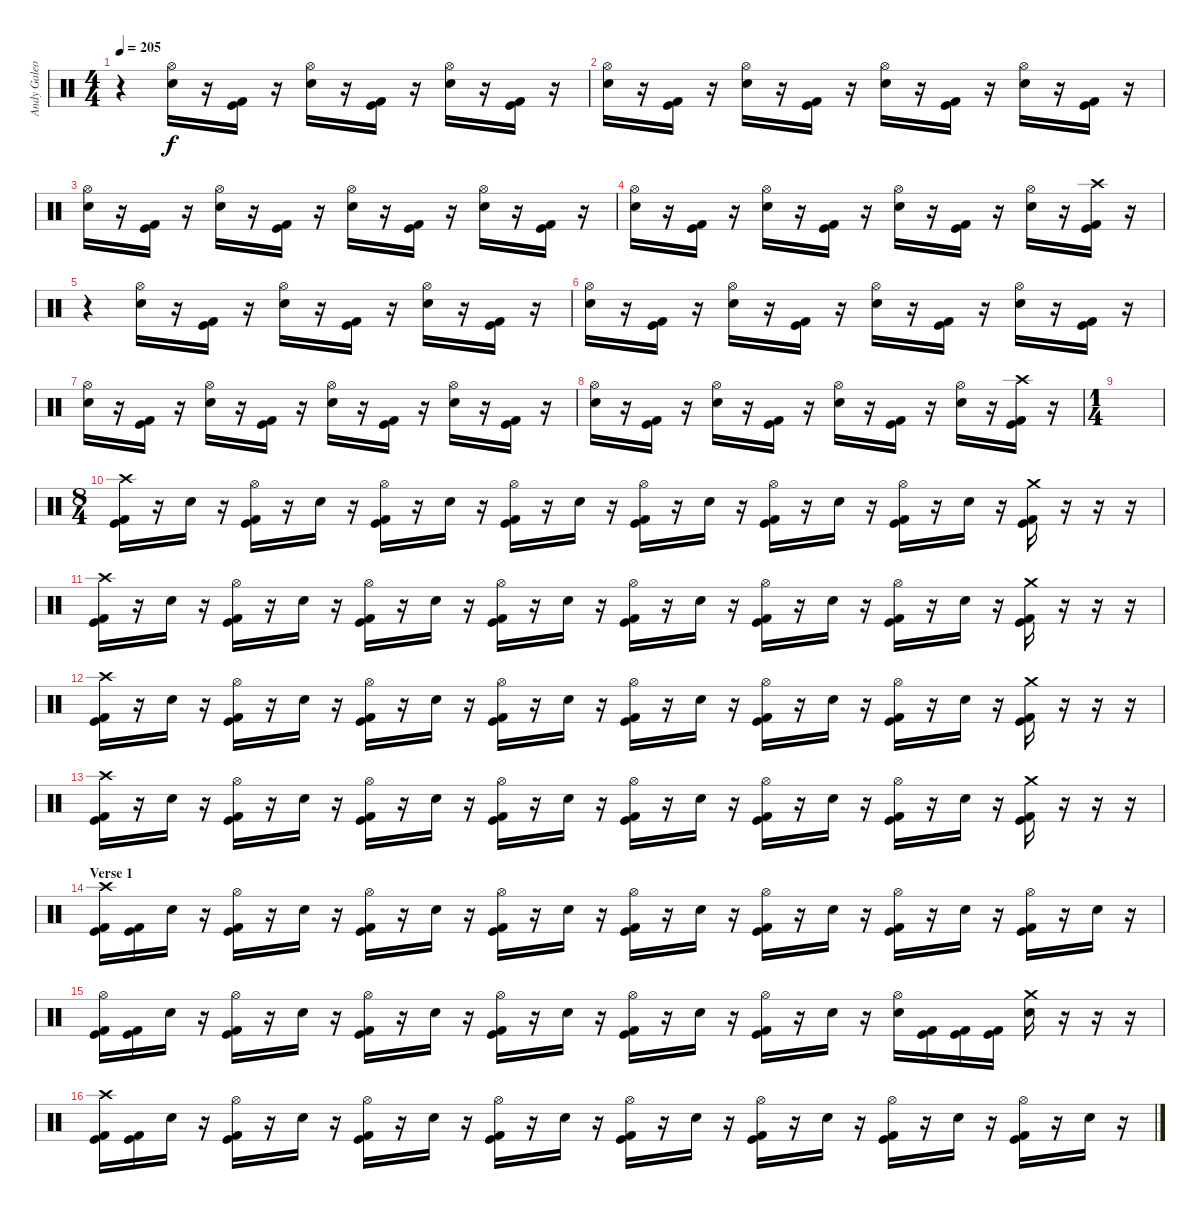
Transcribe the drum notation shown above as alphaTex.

\track ("Andy Galeon - Drums" "Andy Galeo") {instrument percussion}
\staff {score}
\articulation defaults
\ts (4 4)
\tempo 205
\clef neutral
\ks c
r.4{dy f} ("Hi-Hat (open)" "Electric Snare (hit)").16 r.16 ("Kick (hit) 2" "Kick (hit)").16 r.16 ("Hi-Hat (open)" "Electric Snare (hit)").16 r.16 ("Kick (hit) 2" "Kick (hit)").16 r.16 ("Hi-Hat (open)" "Electric Snare (hit)").16 r.16 ("Kick (hit) 2" "Kick (hit)").16 r.16 |
("Hi-Hat (open)" "Electric Snare (hit)").16 r.16 ("Kick (hit) 2" "Kick (hit)").16 r.16 ("Hi-Hat (open)" "Electric Snare (hit)").16 r.16 ("Kick (hit) 2" "Kick (hit)").16 r.16 ("Hi-Hat (open)" "Electric Snare (hit)").16 r.16 ("Kick (hit) 2" "Kick (hit)").16 r.16 ("Hi-Hat (open)" "Electric Snare (hit)").16 r.16 ("Kick (hit) 2" "Kick (hit)").16 r.16 |
("Hi-Hat (open)" "Electric Snare (hit)").16 r.16 ("Kick (hit) 2" "Kick (hit)").16 r.16 ("Hi-Hat (open)" "Electric Snare (hit)").16 r.16 ("Kick (hit) 2" "Kick (hit)").16 r.16 ("Hi-Hat (open)" "Electric Snare (hit)").16 r.16 ("Kick (hit) 2" "Kick (hit)").16 r.16 ("Hi-Hat (open)" "Electric Snare (hit)").16 r.16 ("Kick (hit) 2" "Kick (hit)").16 r.16 |
("Hi-Hat (open)" "Electric Snare (hit)").16 r.16 ("Kick (hit) 2" "Kick (hit)").16 r.16 ("Hi-Hat (open)" "Electric Snare (hit)").16 r.16 ("Kick (hit) 2" "Kick (hit)").16 r.16 ("Hi-Hat (open)" "Electric Snare (hit)").16 r.16 ("Kick (hit) 2" "Kick (hit)").16 r.16 ("Hi-Hat (open)" "Electric Snare (hit)").16 r.16 ("Crash high (hit)" "Kick (hit) 2" "Kick (hit)").16 r.16 |
r.4 ("Hi-Hat (open)" "Electric Snare (hit)").16 r.16 ("Kick (hit) 2" "Kick (hit)").16 r.16 ("Hi-Hat (open)" "Electric Snare (hit)").16 r.16 ("Kick (hit) 2" "Kick (hit)").16 r.16 ("Hi-Hat (open)" "Electric Snare (hit)").16 r.16 ("Kick (hit) 2" "Kick (hit)").16 r.16 |
("Hi-Hat (open)" "Electric Snare (hit)").16 r.16 ("Kick (hit) 2" "Kick (hit)").16 r.16 ("Hi-Hat (open)" "Electric Snare (hit)").16 r.16 ("Kick (hit) 2" "Kick (hit)").16 r.16 ("Hi-Hat (open)" "Electric Snare (hit)").16 r.16 ("Kick (hit) 2" "Kick (hit)").16 r.16 ("Hi-Hat (open)" "Electric Snare (hit)").16 r.16 ("Kick (hit) 2" "Kick (hit)").16 r.16 |
("Hi-Hat (open)" "Electric Snare (hit)").16 r.16 ("Kick (hit) 2" "Kick (hit)").16 r.16 ("Hi-Hat (open)" "Electric Snare (hit)").16 r.16 ("Kick (hit) 2" "Kick (hit)").16 r.16 ("Hi-Hat (open)" "Electric Snare (hit)").16 r.16 ("Kick (hit) 2" "Kick (hit)").16 r.16 ("Hi-Hat (open)" "Electric Snare (hit)").16 r.16 ("Kick (hit) 2" "Kick (hit)").16 r.16 |
("Hi-Hat (open)" "Electric Snare (hit)").16 r.16 ("Kick (hit) 2" "Kick (hit)").16 r.16 ("Hi-Hat (open)" "Electric Snare (hit)").16 r.16 ("Kick (hit) 2" "Kick (hit)").16 r.16 ("Hi-Hat (open)" "Electric Snare (hit)").16 r.16 ("Kick (hit) 2" "Kick (hit)").16 r.16 ("Hi-Hat (open)" "Electric Snare (hit)").16 r.16 ("Crash high (hit)" "Kick (hit) 2" "Kick (hit)").16 r.16 |
\ts (1 4)
|
\ts (8 4)
("Crash high (hit)" "Kick (hit) 2" "Kick (hit)").16 r.16 "Electric Snare (hit)".16 r.16 ("Hi-Hat (open)" "Kick (hit) 2" "Kick (hit)").16 r.16 "Electric Snare (hit)".16 r.16 ("Hi-Hat (open)" "Kick (hit) 2" "Kick (hit)").16 r.16 "Electric Snare (hit)".16 r.16 ("Hi-Hat (open)" "Kick (hit) 2" "Kick (hit)").16 r.16 "Electric Snare (hit)".16 r.16 ("Hi-Hat (open)" "Kick (hit) 2" "Kick (hit)").16 r.16 "Electric Snare (hit)".16 r.16 ("Hi-Hat (open)" "Kick (hit) 2" "Kick (hit)").16 r.16 "Electric Snare (hit)".16 r.16 ("Hi-Hat (open)" "Kick (hit) 2" "Kick (hit)").16 r.16 "Electric Snare (hit)".16 r.16 ("Crash medium (hit)" "Kick (hit)" "Kick (hit) 2").16 r.16 r.16 r.16 |
("Crash high (hit)" "Kick (hit) 2" "Kick (hit)").16 r.16 "Electric Snare (hit)".16 r.16 ("Hi-Hat (open)" "Kick (hit) 2" "Kick (hit)").16 r.16 "Electric Snare (hit)".16 r.16 ("Hi-Hat (open)" "Kick (hit) 2" "Kick (hit)").16 r.16 "Electric Snare (hit)".16 r.16 ("Hi-Hat (open)" "Kick (hit) 2" "Kick (hit)").16 r.16 "Electric Snare (hit)".16 r.16 ("Hi-Hat (open)" "Kick (hit) 2" "Kick (hit)").16 r.16 "Electric Snare (hit)".16 r.16 ("Hi-Hat (open)" "Kick (hit) 2" "Kick (hit)").16 r.16 "Electric Snare (hit)".16 r.16 ("Hi-Hat (open)" "Kick (hit) 2" "Kick (hit)").16 r.16 "Electric Snare (hit)".16 r.16 ("Crash medium (hit)" "Kick (hit)" "Kick (hit) 2").16 r.16 r.16 r.16 |
("Crash high (hit)" "Kick (hit) 2" "Kick (hit)").16 r.16 "Electric Snare (hit)".16 r.16 ("Hi-Hat (open)" "Kick (hit) 2" "Kick (hit)").16 r.16 "Electric Snare (hit)".16 r.16 ("Hi-Hat (open)" "Kick (hit) 2" "Kick (hit)").16 r.16 "Electric Snare (hit)".16 r.16 ("Hi-Hat (open)" "Kick (hit) 2" "Kick (hit)").16 r.16 "Electric Snare (hit)".16 r.16 ("Hi-Hat (open)" "Kick (hit) 2" "Kick (hit)").16 r.16 "Electric Snare (hit)".16 r.16 ("Hi-Hat (open)" "Kick (hit) 2" "Kick (hit)").16 r.16 "Electric Snare (hit)".16 r.16 ("Hi-Hat (open)" "Kick (hit) 2" "Kick (hit)").16 r.16 "Electric Snare (hit)".16 r.16 ("Crash medium (hit)" "Kick (hit)" "Kick (hit) 2").16 r.16 r.16 r.16 |
("Crash high (hit)" "Kick (hit) 2" "Kick (hit)").16 r.16 "Electric Snare (hit)".16 r.16 ("Hi-Hat (open)" "Kick (hit) 2" "Kick (hit)").16 r.16 "Electric Snare (hit)".16 r.16 ("Hi-Hat (open)" "Kick (hit) 2" "Kick (hit)").16 r.16 "Electric Snare (hit)".16 r.16 ("Hi-Hat (open)" "Kick (hit) 2" "Kick (hit)").16 r.16 "Electric Snare (hit)".16 r.16 ("Hi-Hat (open)" "Kick (hit) 2" "Kick (hit)").16 r.16 "Electric Snare (hit)".16 r.16 ("Hi-Hat (open)" "Kick (hit) 2" "Kick (hit)").16 r.16 "Electric Snare (hit)".16 r.16 ("Hi-Hat (open)" "Kick (hit) 2" "Kick (hit)").16 r.16 "Electric Snare (hit)".16 r.16 ("Crash medium (hit)" "Kick (hit)" "Kick (hit) 2").16 r.16 r.16 r.16 |
\section ("" "Verse 1")
("Crash high (hit)" "Kick (hit) 2" "Kick (hit)").16 ("Kick (hit) 2" "Kick (hit)").16 "Electric Snare (hit)".16 r.16 ("Hi-Hat (open)" "Kick (hit) 2" "Kick (hit)").16 r.16 "Electric Snare (hit)".16 r.16 ("Hi-Hat (open)" "Kick (hit) 2" "Kick (hit)").16 r.16 "Electric Snare (hit)".16 r.16 ("Hi-Hat (open)" "Kick (hit) 2" "Kick (hit)").16 r.16 "Electric Snare (hit)".16 r.16 ("Hi-Hat (open)" "Kick (hit) 2" "Kick (hit)").16 r.16 "Electric Snare (hit)".16 r.16 ("Hi-Hat (open)" "Kick (hit) 2" "Kick (hit)").16 r.16 "Electric Snare (hit)".16 r.16 ("Hi-Hat (open)" "Kick (hit) 2" "Kick (hit)").16 r.16 "Electric Snare (hit)".16 r.16 ("Hi-Hat (open)" "Kick (hit)" "Kick (hit) 2").16 r.16 "Electric Snare (hit)".16 r.16 |
("Hi-Hat (open)" "Kick (hit) 2" "Kick (hit)").16 ("Kick (hit) 2" "Kick (hit)").16 "Electric Snare (hit)".16 r.16 ("Hi-Hat (open)" "Kick (hit) 2" "Kick (hit)").16 r.16 "Electric Snare (hit)".16 r.16 ("Hi-Hat (open)" "Kick (hit) 2" "Kick (hit)").16 r.16 "Electric Snare (hit)".16 r.16 ("Hi-Hat (open)" "Kick (hit) 2" "Kick (hit)").16 r.16 "Electric Snare (hit)".16 r.16 ("Hi-Hat (open)" "Kick (hit) 2" "Kick (hit)").16 r.16 "Electric Snare (hit)".16 r.16 ("Hi-Hat (open)" "Kick (hit) 2" "Kick (hit)").16 r.16 "Electric Snare (hit)".16 r.16 ("Hi-Hat (open)" "Electric Snare (hit)").16 ("Kick (hit) 2" "Kick (hit)").16 ("Kick (hit) 2" "Kick (hit)").16 ("Kick (hit) 2" "Kick (hit)").16 ("Crash medium (hit)" "Electric Snare (hit)").16 r.16 r.16 r.16 |
("Crash high (hit)" "Kick (hit) 2" "Kick (hit)").16 ("Kick (hit) 2" "Kick (hit)").16 "Electric Snare (hit)".16 r.16 ("Hi-Hat (open)" "Kick (hit) 2" "Kick (hit)").16 r.16 "Electric Snare (hit)".16 r.16 ("Hi-Hat (open)" "Kick (hit) 2" "Kick (hit)").16 r.16 "Electric Snare (hit)".16 r.16 ("Hi-Hat (open)" "Kick (hit) 2" "Kick (hit)").16 r.16 "Electric Snare (hit)".16 r.16 ("Hi-Hat (open)" "Kick (hit) 2" "Kick (hit)").16 r.16 "Electric Snare (hit)".16 r.16 ("Hi-Hat (open)" "Kick (hit) 2" "Kick (hit)").16 r.16 "Electric Snare (hit)".16 r.16 ("Hi-Hat (open)" "Kick (hit) 2" "Kick (hit)").16 r.16 "Electric Snare (hit)".16 r.16 ("Hi-Hat (open)" "Kick (hit)" "Kick (hit) 2").16 r.16 "Electric Snare (hit)".16 r.16
